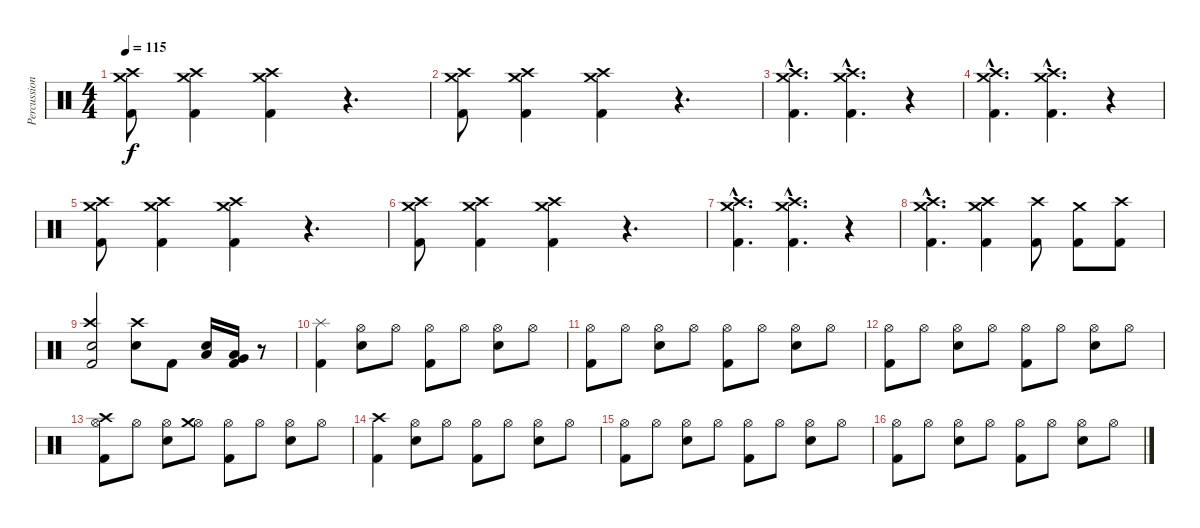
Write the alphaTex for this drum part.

\track ("Percussion" "Percussion") {instrument percussion}
\staff {score}
\articulation defaults
\ts (4 4)
\tempo 115
\clef neutral
\ks c
("Kick (hit) 2" "Crash high (hit)" "Crash medium (hit)").8{dy f} ("Kick (hit) 2" "Crash high (hit)" "Crash medium (hit)").4 ("Kick (hit) 2" "Crash high (hit)" "Crash medium (hit)").4 r.4{d} |
("Kick (hit) 2" "Crash high (hit)" "Crash medium (hit)").8 ("Kick (hit) 2" "Crash high (hit)" "Crash medium (hit)").4 ("Kick (hit) 2" "Crash high (hit)" "Crash medium (hit)").4 r.4{d} |
("Kick (hit) 2"{hac} "Crash high (hit)"{hac} "Crash medium (hit)"{hac}).4{d} ("Kick (hit) 2"{hac} "Crash high (hit)"{hac} "Crash medium (hit)"{hac}).4{d} r.4 |
("Kick (hit) 2"{hac} "Crash high (hit)"{hac} "Crash medium (hit)"{hac}).4{d} ("Kick (hit) 2"{hac} "Crash high (hit)"{hac} "Crash medium (hit)"{hac}).4{d} r.4 |
("Kick (hit) 2" "Crash high (hit)" "Crash medium (hit)").8 ("Kick (hit) 2" "Crash high (hit)" "Crash medium (hit)").4 ("Kick (hit) 2" "Crash high (hit)" "Crash medium (hit)").4 r.4{d} |
("Kick (hit) 2" "Crash high (hit)" "Crash medium (hit)").8 ("Kick (hit) 2" "Crash high (hit)" "Crash medium (hit)").4 ("Kick (hit) 2" "Crash high (hit)" "Crash medium (hit)").4 r.4{d} |
("Kick (hit) 2"{hac} "Crash high (hit)"{hac} "Crash medium (hit)"{hac}).4{d} ("Kick (hit) 2"{hac} "Crash high (hit)"{hac} "Crash medium (hit)"{hac}).4{d} r.4 |
("Kick (hit) 2"{hac} "Crash high (hit)"{hac} "Crash medium (hit)"{hac}).4{d} ("Kick (hit) 2" "Crash high (hit)" "Crash medium (hit)").4 ("Kick (hit) 2" "Crash high (hit)").8 ("Kick (hit) 2" "Crash medium (hit)").8 ("Kick (hit) 2" "Crash high (hit)").8 |
("Kick (hit) 2" "Electric Snare (hit)" "Crash high (hit)").2 ("Electric Snare (hit)" "Crash high (hit)").8 "Kick (hit) 2".8 ("Electric Snare (hit)" "Low Tom (hit)").16 ("Very Low Tom (hit)" "Low Floor Tom (hit)" "Kick (hit) 2").16 r.8 |
("Kick (hit) 2" "Splash (hit)").4 ("Electric Snare (hit)" "Hi-Hat (open)").8 "Hi-Hat (open)".8 ("Kick (hit) 2" "Hi-Hat (open)").8 "Hi-Hat (open)".8 ("Electric Snare (hit)" "Hi-Hat (open)").8 "Hi-Hat (open)".8 |
("Kick (hit) 2" "Hi-Hat (open)").8 "Hi-Hat (open)".8 ("Electric Snare (hit)" "Hi-Hat (open)").8 "Hi-Hat (open)".8 ("Kick (hit) 2" "Hi-Hat (open)").8 "Hi-Hat (open)".8 ("Electric Snare (hit)" "Hi-Hat (open)").8 "Hi-Hat (open)".8 |
("Kick (hit) 2" "Hi-Hat (open)").8 "Hi-Hat (open)".8 ("Electric Snare (hit)" "Hi-Hat (open)").8 "Hi-Hat (open)".8 ("Kick (hit) 2" "Hi-Hat (open)").8 "Hi-Hat (open)".8 ("Electric Snare (hit)" "Hi-Hat (open)").8 "Hi-Hat (open)".8 |
("Kick (hit) 2" "Hi-Hat (open)" "Crash high (hit)").8 "Hi-Hat (open)".8 ("Electric Snare (hit)" "Hi-Hat (open)").8 ("Hi-Hat (open)" "Crash medium (hit)").8 ("Kick (hit) 2" "Hi-Hat (open)").8 "Hi-Hat (open)".8 ("Electric Snare (hit)" "Hi-Hat (open)").8 "Hi-Hat (open)".8 |
("Kick (hit) 2" "Crash high (hit)").4 ("Electric Snare (hit)" "Hi-Hat (open)").8 "Hi-Hat (open)".8 ("Kick (hit) 2" "Hi-Hat (open)").8 "Hi-Hat (open)".8 ("Electric Snare (hit)" "Hi-Hat (open)").8 "Hi-Hat (open)".8 |
("Kick (hit) 2" "Hi-Hat (open)").8 "Hi-Hat (open)".8 ("Electric Snare (hit)" "Hi-Hat (open)").8 "Hi-Hat (open)".8 ("Kick (hit) 2" "Hi-Hat (open)").8 "Hi-Hat (open)".8 ("Electric Snare (hit)" "Hi-Hat (open)").8 "Hi-Hat (open)".8 |
("Kick (hit) 2" "Hi-Hat (open)").8 "Hi-Hat (open)".8 ("Electric Snare (hit)" "Hi-Hat (open)").8 "Hi-Hat (open)".8 ("Kick (hit) 2" "Hi-Hat (open)").8 "Hi-Hat (open)".8 ("Electric Snare (hit)" "Hi-Hat (open)").8 "Hi-Hat (open)".8
